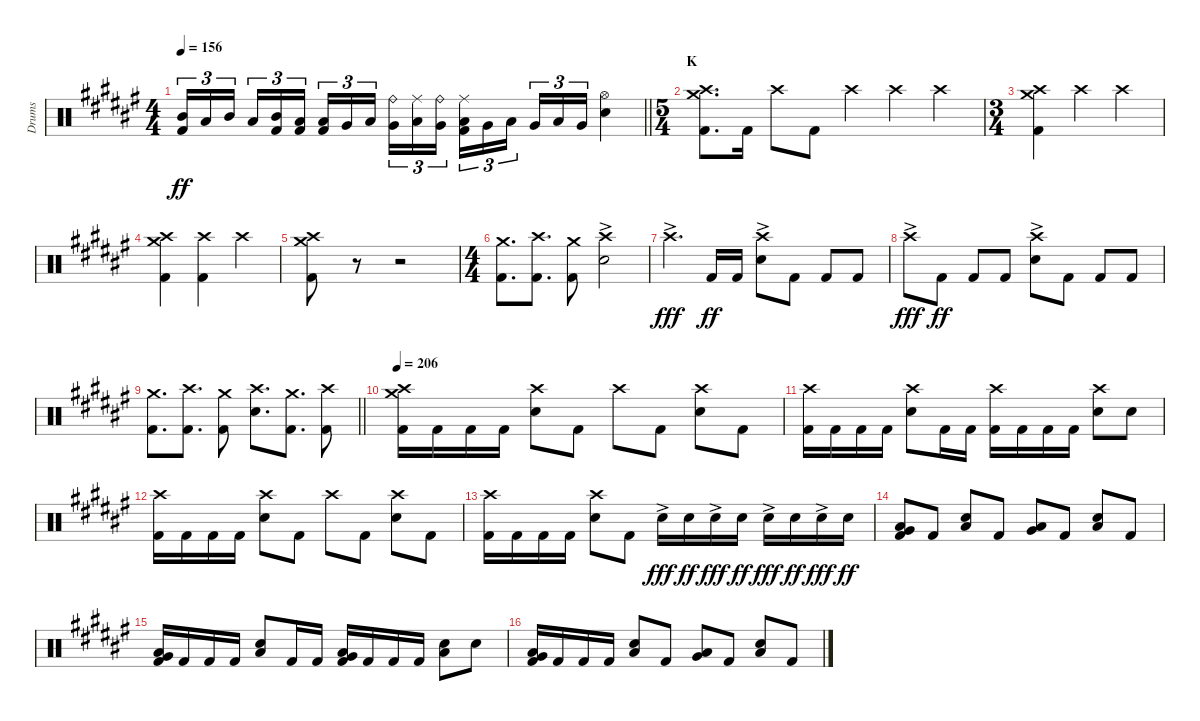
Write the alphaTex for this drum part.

\track ("Drums" "Drums") {instrument percussion}
\staff {score}
\articulation defaults
\ts (4 4)
\tempo 156
\clef neutral
\barLineRight lightlight
\ks f#
("Mid Tom (hit)" "Kick (hit) 2").16{tu (3 2) dy ff} "Low Tom (hit)".16{tu (3 2)} "Mid Tom (hit)".16{tu (3 2) beam splitsecondary} "Low Tom (hit)".16{tu (3 2)} ("Mid Tom (hit)" "Kick (hit) 2").16{tu (3 2)} ("Low Tom (hit)" "Kick (hit) 2").16{tu (3 2)} ("Low Tom (hit)" "Kick (hit) 2").16{tu (3 2)} "Very Low Tom (hit)".16{tu (3 2)} "Low Tom (hit)".16{tu (3 2) beam splitsecondary} ("Ride (bell)" "Very Low Tom (hit)").16{tu (3 2)} ("Ride (middle)" "Low Tom (hit)").16{tu (3 2)} ("Ride (bell)" "Very Low Tom (hit)").16{tu (3 2)} ("Ride (middle)" "Low Tom (hit)" "Kick (hit) 2").16{tu (3 2)} "Very Low Tom (hit)".16{tu (3 2)} "Low Tom (hit)".16{tu (3 2) beam splitsecondary} "Very Low Tom (hit)".16{tu (3 2)} "Low Tom (hit)".16{tu (3 2)} "Very Low Tom (hit)".16{tu (3 2)} ("Hi-Hat (open)" "Electric Snare (hit)").4 |
\ts (5 4)
\section ("" "K")
("Crash medium (hit)" "Crash high (hit)" "Kick (hit) 2").8{d} "Kick (hit) 2".16 "Crash high (hit)".8 "Kick (hit) 2".8 "Crash high (hit)".4 "Crash high (hit)".4 "Crash high (hit)".4 |
\ts (3 4)
("Crash medium (hit)" "Crash high (hit)" "Kick (hit) 2").4 "Crash high (hit)".4 "Crash high (hit)".4 |
("Crash medium (hit)" "Crash high (hit)" "Kick (hit) 2").4 ("Crash high (hit)" "Kick (hit) 2").4 "Crash high (hit)".4 |
("Crash medium (hit)" "Crash high (hit)" "Kick (hit) 2").8 r.8{volume 0} r.2 |
\ts (4 4)
("Crash medium (hit)" "Kick (hit) 2").8{d volume 14} ("Crash high (hit)" "Kick (hit) 2").8{d} ("Crash medium (hit)" "Kick (hit) 2").8 ("Crash high (hit)"{ac} "Electric Snare (hit)").2 |
"Crash high (hit)"{ac}.4{d dy fff} "Kick (hit) 2".16{dy ff} "Kick (hit) 2".16 ("Crash high (hit)"{ac} "Electric Snare (hit)").8 "Kick (hit) 2".8 "Kick (hit) 2".8 "Kick (hit) 2".8 |
"Crash high (hit)"{ac}.8{dy fff} "Kick (hit) 2".8{dy ff} "Kick (hit) 2".8 "Kick (hit) 2".8 ("Crash high (hit)"{ac} "Electric Snare (hit)").8 "Kick (hit) 2".8 "Kick (hit) 2".8 "Kick (hit) 2".8 |
\barLineRight lightlight
("Crash medium (hit)" "Kick (hit) 2").8{d} ("Crash high (hit)" "Kick (hit) 2").8{d} ("Crash medium (hit)" "Kick (hit) 2").8 ("Crash high (hit)" "Electric Snare (hit)").8{d} ("Crash medium (hit)" "Kick (hit) 2").8{d} ("Crash high (hit)" "Kick (hit) 2").8 |
\section ("" "")
\tempo 206
("Crash medium (hit)" "Crash high (hit)" "Kick (hit) 2").16{volume 10} "Kick (hit) 2".16 "Kick (hit) 2".16 "Kick (hit) 2".16 ("Crash high (hit)" "Electric Snare (hit)").8 "Kick (hit) 2".8 "Crash high (hit)".8 "Kick (hit) 2".8 ("Crash high (hit)" "Electric Snare (hit)").8 "Kick (hit) 2".8 |
("Crash high (hit)" "Kick (hit) 2").16 "Kick (hit) 2".16 "Kick (hit) 2".16 "Kick (hit) 2".16 ("Crash high (hit)" "Electric Snare (hit)").8 "Kick (hit) 2".16 "Kick (hit) 2".16 ("Crash high (hit)" "Kick (hit) 2").16 "Kick (hit) 2".16 "Kick (hit) 2".16 "Kick (hit) 2".16 ("Crash high (hit)" "Electric Snare (hit)").8 "Electric Snare (hit)".8 |
("Crash high (hit)" "Kick (hit) 2").16 "Kick (hit) 2".16 "Kick (hit) 2".16 "Kick (hit) 2".16 ("Crash high (hit)" "Electric Snare (hit)").8 "Kick (hit) 2".8 "Crash high (hit)".8 "Kick (hit) 2".8 ("Crash high (hit)" "Electric Snare (hit)").8 "Kick (hit) 2".8 |
("Crash high (hit)" "Kick (hit) 2").16 "Kick (hit) 2".16 "Kick (hit) 2".16 "Kick (hit) 2".16 ("Crash high (hit)" "Electric Snare (hit)").8 "Kick (hit) 2".8 "Electric Snare (hit)"{ac}.16{dy fff} "Electric Snare (hit)".16{dy ff} "Electric Snare (hit)"{ac}.16{dy fff} "Electric Snare (hit)".16{dy ff} "Electric Snare (hit)"{ac}.16{dy fff} "Electric Snare (hit)".16{dy ff} "Electric Snare (hit)"{ac}.16{dy fff} "Electric Snare (hit)".16{dy ff} |
("Low Tom (hit)" "Very Low Tom (hit)" "Kick (hit) 2").8{volume 13} "Kick (hit) 2".8 ("Low Tom (hit)" "Electric Snare (hit)").8{bu 60} "Kick (hit) 2".8 ("Low Tom (hit)" "Very Low Tom (hit)").8{bu 60} "Kick (hit) 2".8 ("Low Tom (hit)" "Electric Snare (hit)").8{bu 60} "Kick (hit) 2".8 |
("Low Tom (hit)" "Very Low Tom (hit)" "Kick (hit) 2").16 "Kick (hit) 2".16 "Kick (hit) 2".16 "Kick (hit) 2".16 ("Low Tom (hit)" "Electric Snare (hit)").8{bu 60} "Kick (hit) 2".16 "Kick (hit) 2".16 ("Low Tom (hit)" "Very Low Tom (hit)" "Kick (hit) 2").16 "Kick (hit) 2".16 "Kick (hit) 2".16 "Kick (hit) 2".16 ("Low Tom (hit)" "Electric Snare (hit)").8{bu 60} "Electric Snare (hit)".8 |
("Low Tom (hit)" "Very Low Tom (hit)" "Kick (hit) 2").16 "Kick (hit) 2".16 "Kick (hit) 2".16 "Kick (hit) 2".16 ("Low Tom (hit)" "Electric Snare (hit)").8{bu 60} "Kick (hit) 2".8 ("Low Tom (hit)" "Very Low Tom (hit)").8{bu 60} "Kick (hit) 2".8 ("Low Tom (hit)" "Electric Snare (hit)").8{bu 60} "Kick (hit) 2".8
